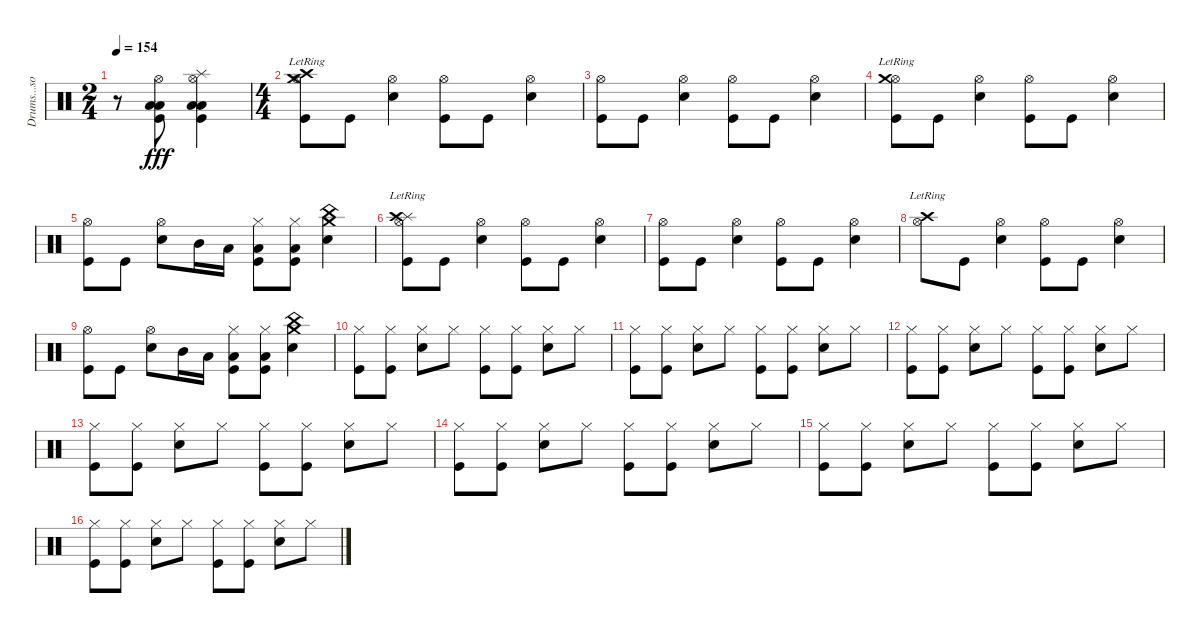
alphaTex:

\track ("Drums...song tabbed by ae" "Drums...so") {instrument percussion}
\staff {score}
\articulation defaults
\ts (2 4)
\tempo 154
\clef neutral
\ks c
r.8{dy fff} ("Hi-Hat (open)" "Low Floor Tom (hit)" "Low Tom (hit)" "Kick (hit)").8 ("Hi-Hat (open)" "Low Floor Tom (hit)" "Low Tom (hit)" "Kick (hit)" "Splash (hit)").4 |
\ts (4 4)
("Crash high (hit)"{lr} "Hi-Hat (open)" "Crash medium (hit)"{lr} "Kick (hit)").8 "Kick (hit)".8 ("Hi-Hat (open)" "Snare (hit) 2").4 ("Hi-Hat (open)" "Kick (hit)").8 "Kick (hit)".8 ("Hi-Hat (open)" "Snare (hit) 2").4 |
("Hi-Hat (open)" "Kick (hit)").8 "Kick (hit)".8 ("Hi-Hat (open)" "Snare (hit) 2").4 ("Hi-Hat (open)" "Kick (hit)").8 "Kick (hit)".8 ("Hi-Hat (open)" "Snare (hit) 2").4 |
("Hi-Hat (open)" "Crash medium (hit)"{lr} "Kick (hit)").8 "Kick (hit)".8 ("Hi-Hat (open)" "Snare (hit) 2").4 ("Hi-Hat (open)" "Kick (hit)").8 "Kick (hit)".8 ("Hi-Hat (open)" "Snare (hit) 2").4 |
("Hi-Hat (open)" "Kick (hit)").8 "Kick (hit)".8 ("Hi-Hat (open)" "Snare (hit) 2").8 "Mid Tom (hit)".16 "Low Tom (hit)".16 ("Hi-Hat (closed)" "Low Floor Tom (hit)" "Kick (hit)").8 ("Hi-Hat (closed)" "Low Floor Tom (hit)" "Kick (hit)").8 ("Crash medium (hit)" "China (hit)" "Snare (hit) 2").4 |
("Splash (hit)" "Hi-Hat (open)" "Crash high (hit)"{lr} "Kick (hit)").8 "Kick (hit)".8 ("Hi-Hat (open)" "Snare (hit) 2").4 ("Hi-Hat (open)" "Kick (hit)").8 "Kick (hit)".8 ("Hi-Hat (open)" "Snare (hit) 2").4 |
("Hi-Hat (open)" "Kick (hit)").8 "Kick (hit)".8 ("Hi-Hat (open)" "Snare (hit) 2").4 ("Hi-Hat (open)" "Kick (hit)").8 "Kick (hit)".8 ("Hi-Hat (open)" "Snare (hit) 2").4 |
("Crash high (hit)"{lr} "Hi-Hat (open)").8 "Kick (hit)".8 ("Hi-Hat (open)" "Snare (hit) 2").4 ("Hi-Hat (open)" "Kick (hit)").8 "Kick (hit)".8 ("Hi-Hat (open)" "Snare (hit) 2").4 |
("Hi-Hat (open)" "Kick (hit)").8 "Kick (hit)".8 ("Hi-Hat (open)" "Snare (hit) 2").8 "Mid Tom (hit)".16 "Low Tom (hit)".16 ("Hi-Hat (closed)" "Low Floor Tom (hit)" "Kick (hit)").8 ("Hi-Hat (closed)" "Low Floor Tom (hit)" "Kick (hit)").8 ("Crash medium (hit)" "China (hit)" "Snare (hit) 2").4 |
("Hi-Hat (closed)" "Kick (hit)").8 ("Hi-Hat (closed)" "Kick (hit)").8 ("Hi-Hat (closed)" "Snare (hit) 2").8 "Hi-Hat (closed)".8 ("Hi-Hat (closed)" "Kick (hit)").8 ("Hi-Hat (closed)" "Kick (hit)").8 ("Hi-Hat (closed)" "Snare (hit) 2").8 "Hi-Hat (closed)".8 |
("Hi-Hat (closed)" "Kick (hit)").8 ("Hi-Hat (closed)" "Kick (hit)").8 ("Hi-Hat (closed)" "Snare (hit) 2").8 "Hi-Hat (closed)".8 ("Hi-Hat (closed)" "Kick (hit)").8 ("Hi-Hat (closed)" "Kick (hit)").8 ("Hi-Hat (closed)" "Snare (hit) 2").8 "Hi-Hat (closed)".8 |
("Hi-Hat (closed)" "Kick (hit)").8 ("Hi-Hat (closed)" "Kick (hit)").8 ("Hi-Hat (closed)" "Snare (hit) 2").8 "Hi-Hat (closed)".8 ("Hi-Hat (closed)" "Kick (hit)").8 ("Hi-Hat (closed)" "Kick (hit)").8 ("Hi-Hat (closed)" "Snare (hit) 2").8 "Hi-Hat (closed)".8 |
("Hi-Hat (closed)" "Kick (hit)").8 ("Hi-Hat (closed)" "Kick (hit)").8 ("Hi-Hat (closed)" "Snare (hit) 2").8 "Hi-Hat (closed)".8 ("Hi-Hat (closed)" "Kick (hit)").8 ("Hi-Hat (closed)" "Kick (hit)").8 ("Hi-Hat (closed)" "Snare (hit) 2").8 "Hi-Hat (closed)".8 |
("Hi-Hat (closed)" "Kick (hit)").8 ("Hi-Hat (closed)" "Kick (hit)").8 ("Hi-Hat (closed)" "Snare (hit) 2").8 "Hi-Hat (closed)".8 ("Hi-Hat (closed)" "Kick (hit)").8 ("Hi-Hat (closed)" "Kick (hit)").8 ("Hi-Hat (closed)" "Snare (hit) 2").8 "Hi-Hat (closed)".8 |
("Hi-Hat (closed)" "Kick (hit)").8 ("Hi-Hat (closed)" "Kick (hit)").8 ("Hi-Hat (closed)" "Snare (hit) 2").8 "Hi-Hat (closed)".8 ("Hi-Hat (closed)" "Kick (hit)").8 ("Hi-Hat (closed)" "Kick (hit)").8 ("Hi-Hat (closed)" "Snare (hit) 2").8 "Hi-Hat (closed)".8 |
("Hi-Hat (closed)" "Kick (hit)").8 ("Hi-Hat (closed)" "Kick (hit)").8 ("Hi-Hat (closed)" "Snare (hit) 2").8 "Hi-Hat (closed)".8 ("Hi-Hat (closed)" "Kick (hit)").8 ("Hi-Hat (closed)" "Kick (hit)").8 ("Hi-Hat (closed)" "Snare (hit) 2").8 "Hi-Hat (closed)".8
